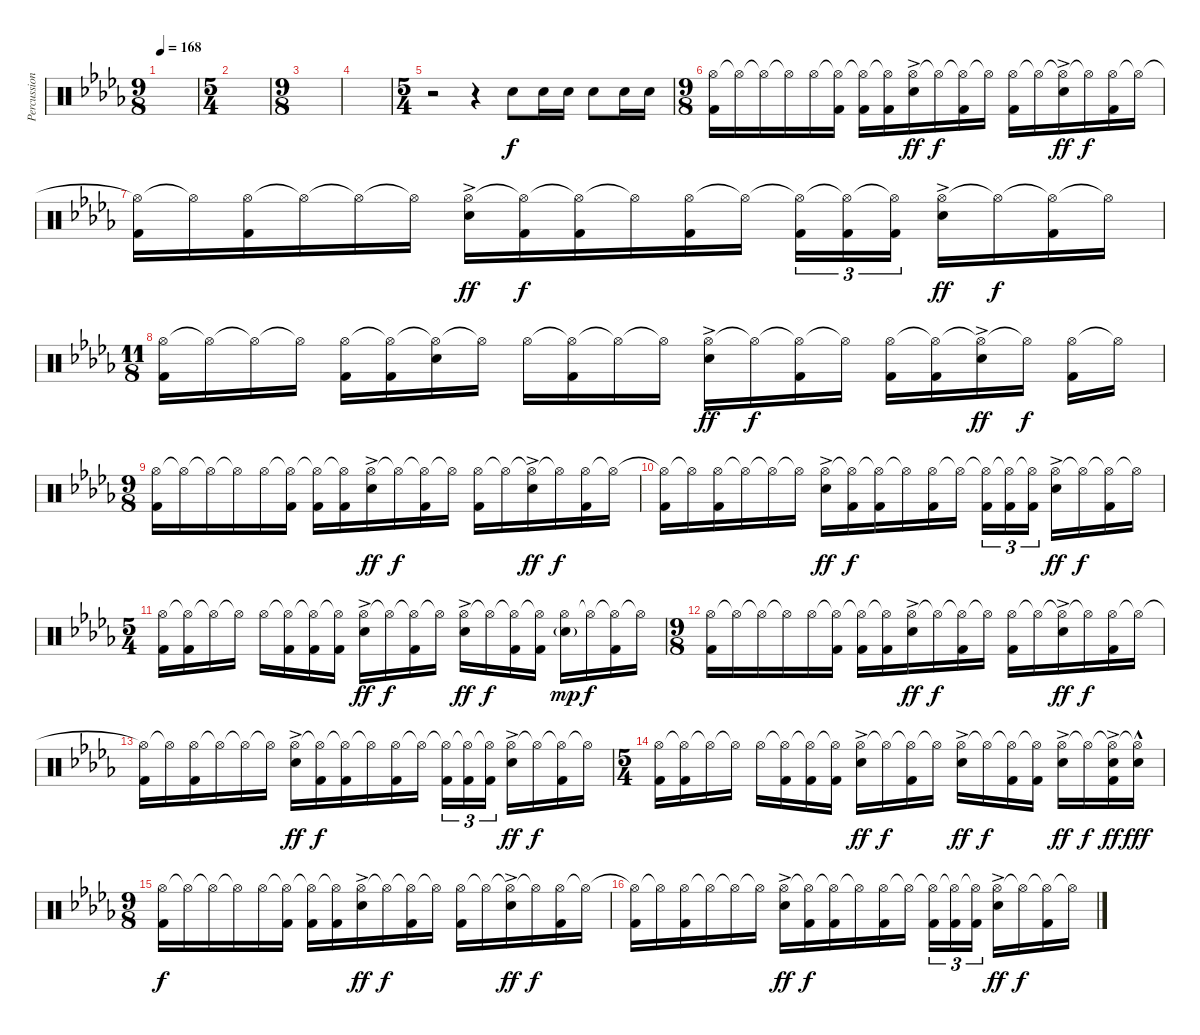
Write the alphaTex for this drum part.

\track ("Percussion" "Percussion") {instrument percussion}
\staff {score}
\articulation defaults
\ts (9 8)
\tempo 168
\clef neutral
\ks bbminor
|
\ts (5 4)
|
\ts (9 8)
|
|
\ts (5 4)
r.2 r.4 "Snare (hit) 2".8{dy f} "Snare (hit) 2".16 "Snare (hit) 2".16 "Snare (hit) 2".8 "Snare (hit) 2".16 "Snare (hit) 2".16 |
\ts (9 8)
("Hi-Hat (open)" "Kick (hit) 2").16 "Hi-Hat (open)"{t}.16 "Hi-Hat (open)"{t}.16 "Hi-Hat (open)"{t}.16 "Hi-Hat (open)".16 ("Hi-Hat (open)"{t} "Kick (hit) 2").16 ("Hi-Hat (open)"{t} "Kick (hit) 2").16 ("Hi-Hat (open)"{t} "Kick (hit) 2").16 ("Hi-Hat (open)" "Snare (hit) 2"{ac}).16{dy ff} "Hi-Hat (open)"{t}.16{dy f} ("Hi-Hat (open)"{t} "Kick (hit) 2").16 "Hi-Hat (open)"{t}.16 ("Hi-Hat (open)" "Kick (hit) 2").16 "Hi-Hat (open)"{t}.16 ("Hi-Hat (open)"{t} "Snare (hit) 2"{ac}).16{dy ff} "Hi-Hat (open)"{t}.16{dy f} ("Hi-Hat (open)" "Kick (hit) 2").16 "Hi-Hat (open)"{t}.16 |
("Hi-Hat (open)"{t} "Kick (hit) 2").16 "Hi-Hat (open)"{t}.16 ("Hi-Hat (open)" "Kick (hit) 2").16 "Hi-Hat (open)"{t}.16 "Hi-Hat (open)"{t}.16 "Hi-Hat (open)"{t}.16 ("Hi-Hat (open)" "Snare (hit) 2"{ac}).16{dy ff} ("Hi-Hat (open)"{t} "Kick (hit) 2").16{dy f} ("Hi-Hat (open)"{t} "Kick (hit) 2").16 "Hi-Hat (open)"{t}.16 ("Hi-Hat (open)" "Kick (hit) 2").16 "Hi-Hat (open)"{t}.16 ("Hi-Hat (open)"{t} "Kick (hit) 2").16{tu (3 2)} ("Hi-Hat (open)"{t} "Kick (hit) 2").16{tu (3 2)} ("Hi-Hat (open)"{t} "Kick (hit) 2").16{tu (3 2) beam splitsecondary} ("Hi-Hat (open)" "Snare (hit) 2"{ac}).16{dy ff} "Hi-Hat (open)"{t}.16{dy f} ("Hi-Hat (open)"{t} "Kick (hit) 2").16 "Hi-Hat (open)"{t}.16 |
\ts (11 8)
("Hi-Hat (open)" "Kick (hit) 2").16 "Hi-Hat (open)"{t}.16 "Hi-Hat (open)"{t}.16 "Hi-Hat (open)"{t}.16 ("Hi-Hat (open)" "Kick (hit) 2").16 ("Hi-Hat (open)"{t} "Kick (hit) 2").16 ("Hi-Hat (open)"{t} "Snare (hit) 2").16 "Hi-Hat (open)"{t}.16 "Hi-Hat (open)".16 ("Hi-Hat (open)"{t} "Kick (hit) 2").16 "Hi-Hat (open)"{t}.16 "Hi-Hat (open)"{t}.16 ("Hi-Hat (open)" "Snare (hit) 2"{ac}).16{dy ff} "Hi-Hat (open)"{t}.16{dy f} ("Hi-Hat (open)"{t} "Kick (hit) 2").16 "Hi-Hat (open)"{t}.16 ("Hi-Hat (open)" "Kick (hit) 2").16 ("Hi-Hat (open)"{t} "Kick (hit) 2").16 ("Hi-Hat (open)"{t} "Snare (hit) 2"{ac}).16{dy ff} "Hi-Hat (open)"{t}.16{dy f} ("Hi-Hat (open)" "Kick (hit) 2").16 "Hi-Hat (open)"{t}.16 |
\ts (9 8)
("Hi-Hat (open)" "Kick (hit) 2").16 "Hi-Hat (open)"{t}.16 "Hi-Hat (open)"{t}.16 "Hi-Hat (open)"{t}.16 "Hi-Hat (open)".16 ("Hi-Hat (open)"{t} "Kick (hit) 2").16 ("Hi-Hat (open)"{t} "Kick (hit) 2").16 ("Hi-Hat (open)"{t} "Kick (hit) 2").16 ("Hi-Hat (open)" "Snare (hit) 2"{ac}).16{dy ff} "Hi-Hat (open)"{t}.16{dy f} ("Hi-Hat (open)"{t} "Kick (hit) 2").16 "Hi-Hat (open)"{t}.16 ("Hi-Hat (open)" "Kick (hit) 2").16 "Hi-Hat (open)"{t}.16 ("Hi-Hat (open)"{t} "Snare (hit) 2"{ac}).16{dy ff} "Hi-Hat (open)"{t}.16{dy f} ("Hi-Hat (open)" "Kick (hit) 2").16 "Hi-Hat (open)"{t}.16 |
("Hi-Hat (open)"{t} "Kick (hit) 2").16 "Hi-Hat (open)"{t}.16 ("Hi-Hat (open)" "Kick (hit) 2").16 "Hi-Hat (open)"{t}.16 "Hi-Hat (open)"{t}.16 "Hi-Hat (open)"{t}.16 ("Hi-Hat (open)" "Snare (hit) 2"{ac}).16{dy ff} ("Hi-Hat (open)"{t} "Kick (hit) 2").16{dy f} ("Hi-Hat (open)"{t} "Kick (hit) 2").16 "Hi-Hat (open)"{t}.16 ("Hi-Hat (open)" "Kick (hit) 2").16 "Hi-Hat (open)"{t}.16 ("Hi-Hat (open)"{t} "Kick (hit) 2").16{tu (3 2)} ("Hi-Hat (open)"{t} "Kick (hit) 2").16{tu (3 2)} ("Hi-Hat (open)"{t} "Kick (hit) 2").16{tu (3 2) beam splitsecondary} ("Hi-Hat (open)" "Snare (hit) 2"{ac}).16{dy ff} "Hi-Hat (open)"{t}.16{dy f} ("Hi-Hat (open)"{t} "Kick (hit) 2").16 "Hi-Hat (open)"{t}.16 |
\ts (5 4)
("Hi-Hat (open)" "Kick (hit) 2").16 ("Hi-Hat (open)"{t} "Kick (hit) 2").16 "Hi-Hat (open)"{t}.16 "Hi-Hat (open)"{t}.16 "Hi-Hat (open)".16 ("Hi-Hat (open)"{t} "Kick (hit) 2").16 ("Hi-Hat (open)"{t} "Kick (hit) 2").16 ("Hi-Hat (open)"{t} "Kick (hit) 2").16 ("Hi-Hat (open)" "Snare (hit) 2"{ac}).16{dy ff} "Hi-Hat (open)"{t}.16{dy f} ("Hi-Hat (open)"{t} "Kick (hit) 2").16 "Hi-Hat (open)"{t}.16 ("Hi-Hat (open)" "Snare (hit) 2"{ac}).16{dy ff} "Hi-Hat (open)"{t}.16{dy f} ("Hi-Hat (open)"{t} "Kick (hit) 2").16 ("Hi-Hat (open)"{t} "Kick (hit) 2").16 ("Hi-Hat (open)" "Snare (hit) 2"{g}).16{dy mp} "Hi-Hat (open)"{t}.16{dy f} ("Hi-Hat (open)"{t} "Kick (hit) 2").16 "Hi-Hat (open)"{t}.16 |
\ts (9 8)
("Hi-Hat (open)" "Kick (hit) 2").16 "Hi-Hat (open)"{t}.16 "Hi-Hat (open)"{t}.16 "Hi-Hat (open)"{t}.16 "Hi-Hat (open)".16 ("Hi-Hat (open)"{t} "Kick (hit) 2").16 ("Hi-Hat (open)"{t} "Kick (hit) 2").16 ("Hi-Hat (open)"{t} "Kick (hit) 2").16 ("Hi-Hat (open)" "Snare (hit) 2"{ac}).16{dy ff} "Hi-Hat (open)"{t}.16{dy f} ("Hi-Hat (open)"{t} "Kick (hit) 2").16 "Hi-Hat (open)"{t}.16 ("Hi-Hat (open)" "Kick (hit) 2").16 "Hi-Hat (open)"{t}.16 ("Hi-Hat (open)"{t} "Snare (hit) 2"{ac}).16{dy ff} "Hi-Hat (open)"{t}.16{dy f} ("Hi-Hat (open)" "Kick (hit) 2").16 "Hi-Hat (open)"{t}.16 |
("Hi-Hat (open)"{t} "Kick (hit) 2").16 "Hi-Hat (open)"{t}.16 ("Hi-Hat (open)" "Kick (hit) 2").16 "Hi-Hat (open)"{t}.16 "Hi-Hat (open)"{t}.16 "Hi-Hat (open)"{t}.16 ("Hi-Hat (open)" "Snare (hit) 2"{ac}).16{dy ff} ("Hi-Hat (open)"{t} "Kick (hit) 2").16{dy f} ("Hi-Hat (open)"{t} "Kick (hit) 2").16 "Hi-Hat (open)"{t}.16 ("Hi-Hat (open)" "Kick (hit) 2").16 "Hi-Hat (open)"{t}.16 ("Hi-Hat (open)"{t} "Kick (hit) 2").16{tu (3 2)} ("Hi-Hat (open)"{t} "Kick (hit) 2").16{tu (3 2)} ("Hi-Hat (open)"{t} "Kick (hit) 2").16{tu (3 2) beam splitsecondary} ("Hi-Hat (open)" "Snare (hit) 2"{ac}).16{dy ff} "Hi-Hat (open)"{t}.16{dy f} ("Hi-Hat (open)"{t} "Kick (hit) 2").16 "Hi-Hat (open)"{t}.16 |
\ts (5 4)
("Hi-Hat (open)" "Kick (hit) 2").16 ("Hi-Hat (open)"{t} "Kick (hit) 2").16 "Hi-Hat (open)"{t}.16 "Hi-Hat (open)"{t}.16 "Hi-Hat (open)".16 ("Hi-Hat (open)"{t} "Kick (hit) 2").16 ("Hi-Hat (open)"{t} "Kick (hit) 2").16 ("Hi-Hat (open)"{t} "Kick (hit) 2").16 ("Hi-Hat (open)" "Snare (hit) 2"{ac}).16{dy ff} "Hi-Hat (open)"{t}.16{dy f} ("Hi-Hat (open)"{t} "Kick (hit) 2").16 "Hi-Hat (open)"{t}.16 ("Hi-Hat (open)" "Snare (hit) 2"{ac}).16{dy ff} "Hi-Hat (open)"{t}.16{dy f} ("Hi-Hat (open)"{t} "Kick (hit) 2").16 ("Hi-Hat (open)"{t} "Kick (hit) 2").16 ("Hi-Hat (open)" "Snare (hit) 2"{ac}).16{dy ff} "Hi-Hat (open)"{t}.16{dy f} ("Hi-Hat (open)"{t} "Snare (hit) 2"{ac} "Kick (hit) 2").16{dy ff} ("Hi-Hat (open)"{t} "Snare (hit) 2"{hac}).16{dy fff} |
\ts (9 8)
("Hi-Hat (open)" "Kick (hit) 2").16{dy f} "Hi-Hat (open)"{t}.16 "Hi-Hat (open)"{t}.16 "Hi-Hat (open)"{t}.16 "Hi-Hat (open)".16 ("Hi-Hat (open)"{t} "Kick (hit) 2").16 ("Hi-Hat (open)"{t} "Kick (hit) 2").16 ("Hi-Hat (open)"{t} "Kick (hit) 2").16 ("Hi-Hat (open)" "Snare (hit) 2"{ac}).16{dy ff} "Hi-Hat (open)"{t}.16{dy f} ("Hi-Hat (open)"{t} "Kick (hit) 2").16 "Hi-Hat (open)"{t}.16 ("Hi-Hat (open)" "Kick (hit) 2").16 "Hi-Hat (open)"{t}.16 ("Hi-Hat (open)"{t} "Snare (hit) 2"{ac}).16{dy ff} "Hi-Hat (open)"{t}.16{dy f} ("Hi-Hat (open)" "Kick (hit) 2").16 "Hi-Hat (open)"{t}.16 |
("Hi-Hat (open)"{t} "Kick (hit) 2").16 "Hi-Hat (open)"{t}.16 ("Hi-Hat (open)" "Kick (hit) 2").16 "Hi-Hat (open)"{t}.16 "Hi-Hat (open)"{t}.16 "Hi-Hat (open)"{t}.16 ("Hi-Hat (open)" "Snare (hit) 2"{ac}).16{dy ff} ("Hi-Hat (open)"{t} "Kick (hit) 2").16{dy f} ("Hi-Hat (open)"{t} "Kick (hit) 2").16 "Hi-Hat (open)"{t}.16 ("Hi-Hat (open)" "Kick (hit) 2").16 "Hi-Hat (open)"{t}.16 ("Hi-Hat (open)"{t} "Kick (hit) 2").16{tu (3 2)} ("Hi-Hat (open)"{t} "Kick (hit) 2").16{tu (3 2)} ("Hi-Hat (open)"{t} "Kick (hit) 2").16{tu (3 2) beam splitsecondary} ("Hi-Hat (open)" "Snare (hit) 2"{ac}).16{dy ff} "Hi-Hat (open)"{t}.16{dy f} ("Hi-Hat (open)"{t} "Kick (hit) 2").16 "Hi-Hat (open)"{t}.16
